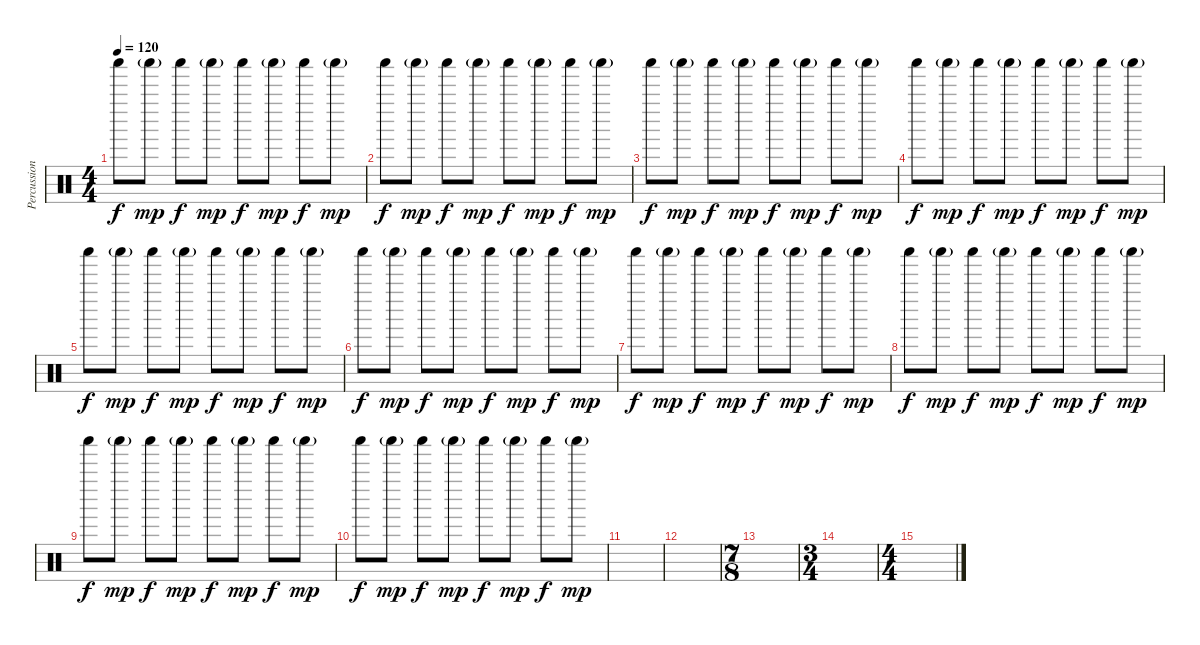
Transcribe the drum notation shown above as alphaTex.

\track ("Percussion" "Percussion") {instrument percussion}
\staff {score}
\articulation defaults
\ts (4 4)
\tempo 120
\clef neutral
\ks c "Shaker (hit)".8{dy f balance 16} "Shaker (hit)"{g}.8{dy mp} "Shaker (hit)".8{dy f balance 0} "Shaker (hit)"{g}.8{dy mp} "Shaker (hit)".8{dy f balance 16} "Shaker (hit)"{g}.8{dy mp} "Shaker (hit)".8{dy f balance 0} "Shaker (hit)"{g}.8{dy mp}
|
"Shaker (hit)".8{dy f balance 16} "Shaker (hit)"{g}.8{dy mp} "Shaker (hit)".8{dy f balance 0} "Shaker (hit)"{g}.8{dy mp} "Shaker (hit)".8{dy f balance 16} "Shaker (hit)"{g}.8{dy mp} "Shaker (hit)".8{dy f balance 0} "Shaker (hit)"{g}.8{dy mp} |
"Shaker (hit)".8{dy f balance 16} "Shaker (hit)"{g}.8{dy mp} "Shaker (hit)".8{dy f balance 0} "Shaker (hit)"{g}.8{dy mp} "Shaker (hit)".8{dy f balance 16} "Shaker (hit)"{g}.8{dy mp} "Shaker (hit)".8{dy f balance 0} "Shaker (hit)"{g}.8{dy mp} |
"Shaker (hit)".8{dy f balance 16} "Shaker (hit)"{g}.8{dy mp} "Shaker (hit)".8{dy f balance 0} "Shaker (hit)"{g}.8{dy mp} "Shaker (hit)".8{dy f balance 16} "Shaker (hit)"{g}.8{dy mp} "Shaker (hit)".8{dy f balance 0} "Shaker (hit)"{g}.8{dy mp} |
"Shaker (hit)".8{dy f balance 16} "Shaker (hit)"{g}.8{dy mp} "Shaker (hit)".8{dy f balance 0} "Shaker (hit)"{g}.8{dy mp} "Shaker (hit)".8{dy f balance 16} "Shaker (hit)"{g}.8{dy mp} "Shaker (hit)".8{dy f balance 0} "Shaker (hit)"{g}.8{dy mp} |
"Shaker (hit)".8{dy f balance 16} "Shaker (hit)"{g}.8{dy mp} "Shaker (hit)".8{dy f balance 0} "Shaker (hit)"{g}.8{dy mp} "Shaker (hit)".8{dy f balance 16} "Shaker (hit)"{g}.8{dy mp} "Shaker (hit)".8{dy f balance 0} "Shaker (hit)"{g}.8{dy mp} |
"Shaker (hit)".8{dy f balance 16} "Shaker (hit)"{g}.8{dy mp} "Shaker (hit)".8{dy f balance 0} "Shaker (hit)"{g}.8{dy mp} "Shaker (hit)".8{dy f balance 16} "Shaker (hit)"{g}.8{dy mp} "Shaker (hit)".8{dy f balance 0} "Shaker (hit)"{g}.8{dy mp} |
"Shaker (hit)".8{dy f balance 16} "Shaker (hit)"{g}.8{dy mp} "Shaker (hit)".8{dy f balance 0} "Shaker (hit)"{g}.8{dy mp} "Shaker (hit)".8{dy f balance 16} "Shaker (hit)"{g}.8{dy mp} "Shaker (hit)".8{dy f balance 0} "Shaker (hit)"{g}.8{dy mp} |
"Shaker (hit)".8{dy f volume 3 balance 16} "Shaker (hit)"{g}.8{dy mp} "Shaker (hit)".8{dy f balance 0} "Shaker (hit)"{g}.8{dy mp} "Shaker (hit)".8{dy f balance 16} "Shaker (hit)"{g}.8{dy mp} "Shaker (hit)".8{dy f balance 0} "Shaker (hit)"{g}.8{dy mp} |
"Shaker (hit)".8{dy f balance 16} "Shaker (hit)"{g}.8{dy mp} "Shaker (hit)".8{dy f balance 0} "Shaker (hit)"{g}.8{dy mp} "Shaker (hit)".8{dy f balance 16} "Shaker (hit)"{g}.8{dy mp} "Shaker (hit)".8{dy f balance 0} "Shaker (hit)"{g}.8{dy mp} |
|
|
\ts (7 8)
|
\ts (3 4)
|
\ts (4 4)
